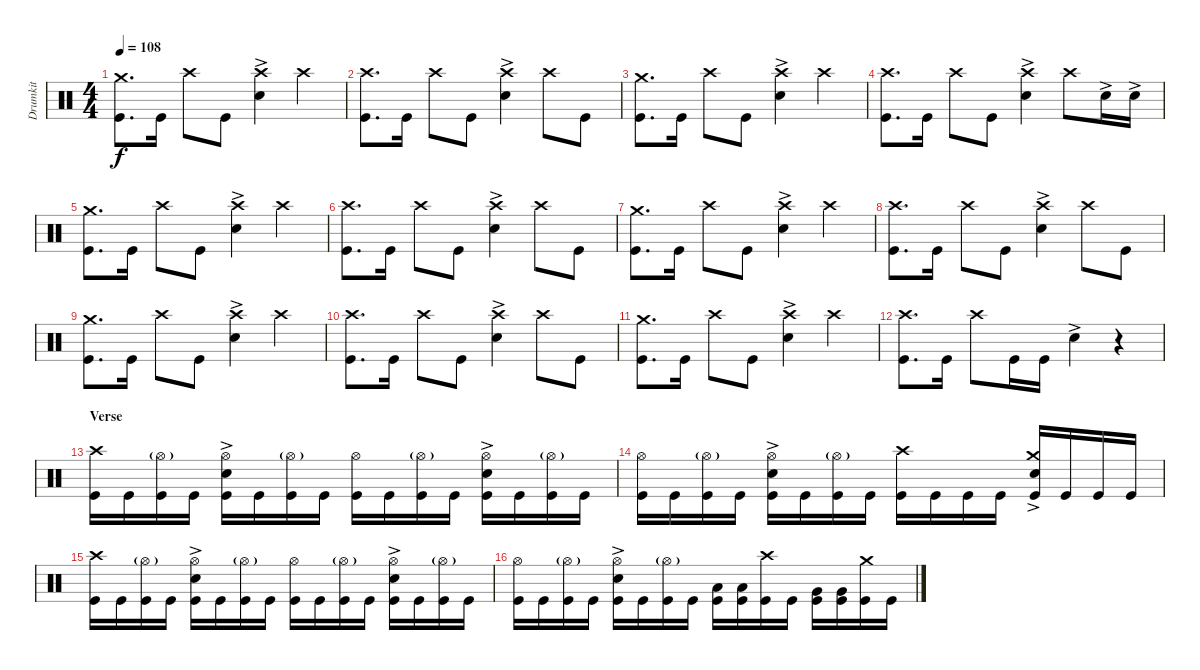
\track ("Drumkit" "Drumkit") {instrument percussion}
\staff {score}
\articulation defaults
\ts (4 4)
\tempo 108
\clef neutral
\ks c
("Kick (hit)" "Crash medium (hit)").8{d dy f} "Kick (hit)".16 "Crash high (hit)".8 "Kick (hit)".8 ("Snare (hit) 2"{ac} "Crash high (hit)").4 "Crash high (hit)".4 |
("Kick (hit)" "Crash high (hit)").8{d} "Kick (hit)".16 "Crash high (hit)".8 "Kick (hit)".8 ("Snare (hit) 2"{ac} "Crash high (hit)").4 "Crash high (hit)".8 "Kick (hit)".8 |
("Kick (hit)" "Crash medium (hit)").8{d} "Kick (hit)".16 "Crash high (hit)".8 "Kick (hit)".8 ("Snare (hit) 2"{ac} "Crash high (hit)").4 "Crash high (hit)".4 |
("Kick (hit)" "Crash high (hit)").8{d} "Kick (hit)".16 "Crash high (hit)".8 "Kick (hit)".8 ("Snare (hit) 2"{ac} "Crash high (hit)").4 "Crash high (hit)".8 "Snare (hit) 2"{ac}.16 "Snare (hit) 2"{ac}.16 |
("Kick (hit)" "Crash medium (hit)").8{d} "Kick (hit)".16 "Crash high (hit)".8 "Kick (hit)".8 ("Snare (hit) 2"{ac} "Crash high (hit)").4 "Crash high (hit)".4 |
("Kick (hit)" "Crash high (hit)").8{d} "Kick (hit)".16 "Crash high (hit)".8 "Kick (hit)".8 ("Snare (hit) 2"{ac} "Crash high (hit)").4 "Crash high (hit)".8 "Kick (hit)".8 |
("Kick (hit)" "Crash medium (hit)").8{d} "Kick (hit)".16 "Crash high (hit)".8 "Kick (hit)".8 ("Snare (hit) 2"{ac} "Crash high (hit)").4 "Crash high (hit)".4 |
("Kick (hit)" "Crash high (hit)").8{d} "Kick (hit)".16 "Crash high (hit)".8 "Kick (hit)".8 ("Snare (hit) 2"{ac} "Crash high (hit)").4 "Crash high (hit)".8 "Kick (hit)".8 |
("Kick (hit)" "Crash medium (hit)").8{d} "Kick (hit)".16 "Crash high (hit)".8 "Kick (hit)".8 ("Snare (hit) 2"{ac} "Crash high (hit)").4 "Crash high (hit)".4 |
("Kick (hit)" "Crash high (hit)").8{d} "Kick (hit)".16 "Crash high (hit)".8 "Kick (hit)".8 ("Snare (hit) 2"{ac} "Crash high (hit)").4 "Crash high (hit)".8 "Kick (hit)".8 |
("Kick (hit)" "Crash medium (hit)").8{d} "Kick (hit)".16 "Crash high (hit)".8 "Kick (hit)".8 ("Snare (hit) 2"{ac} "Crash high (hit)").4 "Crash high (hit)".4 |
("Kick (hit)" "Crash high (hit)").8{d} "Kick (hit)".16 "Crash high (hit)".8 "Kick (hit)".16 "Kick (hit)".16 "Snare (hit) 2"{ac}.4 r.4 |
\section ("" "Verse")
("Kick (hit)" "Crash high (hit)").16 "Kick (hit)".16 ("Kick (hit)" "Hi-Hat (open)"{g}).16 "Kick (hit)".16 ("Kick (hit)" "Snare (hit) 2"{ac} "Hi-Hat (open)").16 "Kick (hit)".16 ("Kick (hit)" "Hi-Hat (open)"{g}).16 "Kick (hit)".16 ("Kick (hit)" "Hi-Hat (open)").16 "Kick (hit)".16 ("Kick (hit)" "Hi-Hat (open)"{g}).16 "Kick (hit)".16 ("Kick (hit)" "Snare (hit) 2"{ac} "Hi-Hat (open)").16 "Kick (hit)".16 ("Kick (hit)" "Hi-Hat (open)"{g}).16 "Kick (hit)".16 |
("Kick (hit)" "Hi-Hat (open)").16 "Kick (hit)".16 ("Kick (hit)" "Hi-Hat (open)"{g}).16 "Kick (hit)".16 ("Kick (hit)" "Snare (hit) 2"{ac} "Hi-Hat (open)").16 "Kick (hit)".16 ("Kick (hit)" "Hi-Hat (open)"{g}).16 "Kick (hit)".16 ("Kick (hit)" "Crash high (hit)").16 "Kick (hit)".16 "Kick (hit)".16 "Kick (hit)".16 ("Kick (hit)" "Snare (hit) 2"{ac} "Crash medium (hit)").16 "Kick (hit)".16 "Kick (hit)".16 "Kick (hit)".16 |
("Kick (hit)" "Crash high (hit)").16 "Kick (hit)".16 ("Kick (hit)" "Hi-Hat (open)"{g}).16 "Kick (hit)".16 ("Kick (hit)" "Snare (hit) 2"{ac} "Hi-Hat (open)").16 "Kick (hit)".16 ("Kick (hit)" "Hi-Hat (open)"{g}).16 "Kick (hit)".16 ("Kick (hit)" "Hi-Hat (open)").16 "Kick (hit)".16 ("Kick (hit)" "Hi-Hat (open)"{g}).16 "Kick (hit)".16 ("Kick (hit)" "Snare (hit) 2"{ac} "Hi-Hat (open)").16 "Kick (hit)".16 ("Kick (hit)" "Hi-Hat (open)"{g}).16 "Kick (hit)".16 |
("Kick (hit)" "Hi-Hat (open)").16 "Kick (hit)".16 ("Kick (hit)" "Hi-Hat (open)"{g}).16 "Kick (hit)".16 ("Kick (hit)" "Snare (hit) 2"{ac} "Hi-Hat (open)").16 "Kick (hit)".16 ("Kick (hit)" "Hi-Hat (open)"{g}).16 "Kick (hit)".16 ("Kick (hit)" "Low Tom (hit)").16 ("Kick (hit)" "Low Tom (hit)").16 ("Kick (hit)" "Crash high (hit)").16 "Kick (hit)".16 ("Kick (hit)" "Very Low Tom (hit)").16 ("Kick (hit)" "Very Low Tom (hit)").16 ("Kick (hit)" "Crash medium (hit)").16 "Kick (hit)".16
